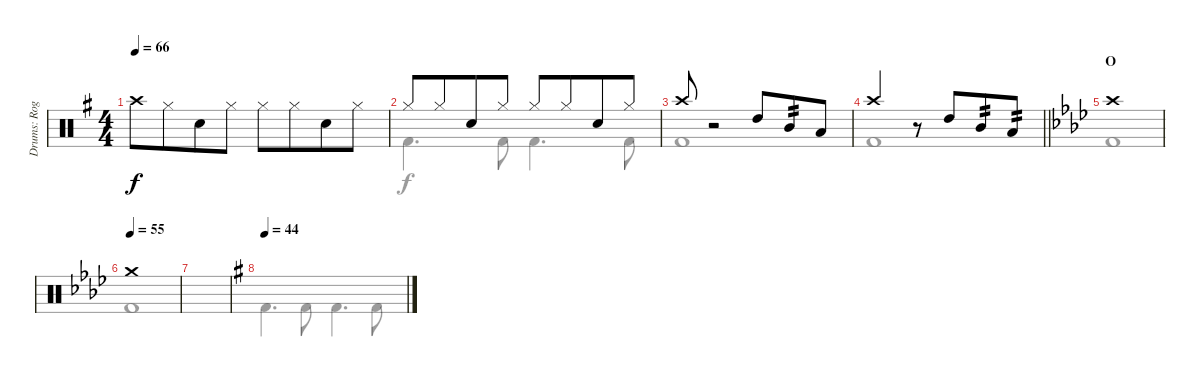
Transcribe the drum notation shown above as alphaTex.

\track ("Drums: Roger Pope" "Drums: Rog") {instrument percussion}
\staff {score}
\articulation defaults
\voice
\ts (4 4)
\tempo 66
\clef neutral
\ks g "Crash high (hit)".8{dy f} "Hi-Hat (closed)".8{beam merge} "Electric Snare (hit)".8 "Hi-Hat (closed)".8 "Hi-Hat (closed)".8 "Hi-Hat (closed)".8{beam merge} "Electric Snare (hit)".8 "Hi-Hat (closed)".8
|
"Hi-Hat (closed)".8 "Hi-Hat (closed)".8{beam merge} "Electric Snare (hit)".8 "Hi-Hat (closed)".8 "Hi-Hat (closed)".8 "Hi-Hat (closed)".8{beam merge} "Electric Snare (hit)".8 "Hi-Hat (closed)".8 |
"Crash high (hit)".8 r.2 "High Tom (hit)".8{beam merge} "Mid Tom (hit)".8{tp 2} "Low Tom (hit)".8 |
\barLineRight lightlight "Crash high (hit)".2
r.8 "High Tom (hit)".8{beam merge} "Mid Tom (hit)".8{tp 2} "Low Tom (hit)".8{tp 2} |
\section ("" "O")
\ks ab "Crash high (hit)".1
|
\tempo (55)
"Crash medium (hit)".1 |
|
\tempo 44
\voice
\clef neutral
\ottava regular
\simile none
\ks g "Kick (hit) 2".4{d dy f} "Kick (hit) 2".8 "Kick (hit) 2".4{d} "Kick (hit) 2".8
|
"Kick (hit) 2".4{d} "Kick (hit) 2".8 "Kick (hit) 2".4{d} "Kick (hit) 2".8 |
"Kick (hit) 2".1 |
\barLineRight lightlight "Kick (hit) 2".1
|
\ks ab "Kick (hit) 2".1
|
"Kick (hit) 2".1 |
|
